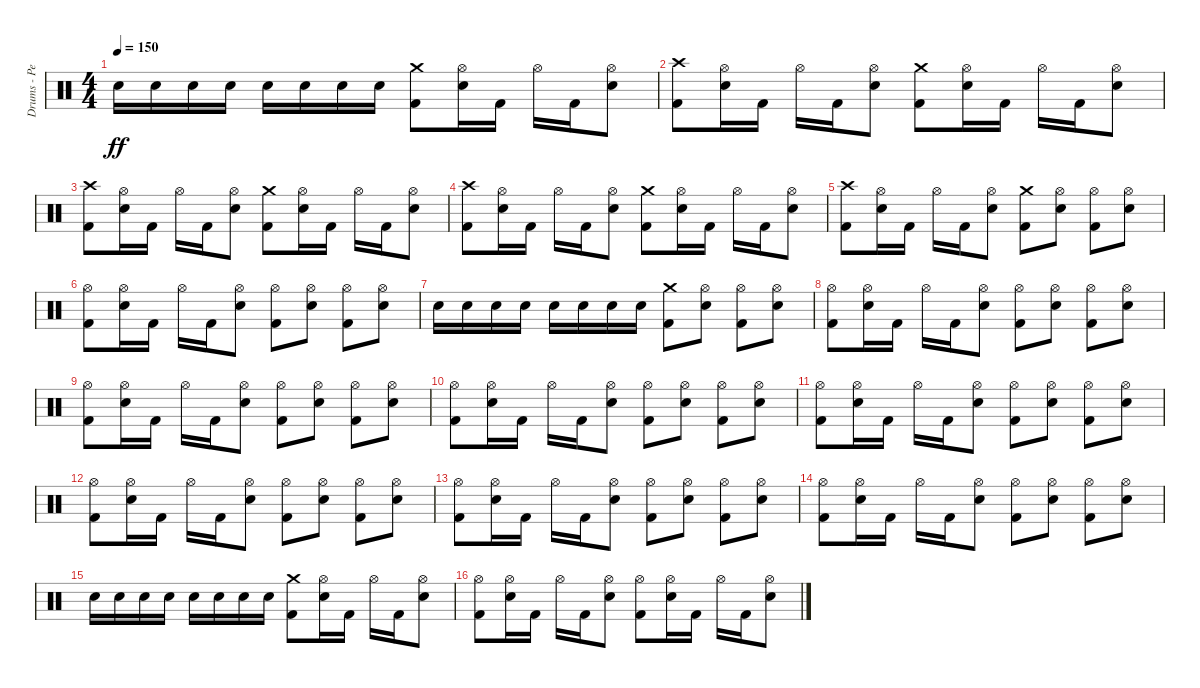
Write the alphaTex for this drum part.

\track ("Drums - Pete Finestone" "Drums - Pe") {instrument percussion}
\staff {score}
\articulation defaults
\ts (4 4)
\tempo 150
\clef neutral
\ks c "Electric Snare (hit)".16{dy ff} "Electric Snare (hit)".16 "Electric Snare (hit)".16 "Electric Snare (hit)".16 "Electric Snare (hit)".16 "Electric Snare (hit)".16 "Electric Snare (hit)".16 "Electric Snare (hit)".16
("Kick (hit) 2" "Crash medium (hit)").8 ("Electric Snare (hit)" "Hi-Hat (open)").16 "Kick (hit) 2".16 "Hi-Hat (open)".16 "Kick (hit) 2".16 ("Electric Snare (hit)" "Hi-Hat (open)").8 |
("Kick (hit) 2" "Crash high (hit)").8 ("Electric Snare (hit)" "Hi-Hat (open)").16 "Kick (hit) 2".16 "Hi-Hat (open)".16 "Kick (hit) 2".16 ("Electric Snare (hit)" "Hi-Hat (open)").8 ("Kick (hit) 2" "Crash medium (hit)").8 ("Electric Snare (hit)" "Hi-Hat (open)").16 "Kick (hit) 2".16 "Hi-Hat (open)".16 "Kick (hit) 2".16 ("Electric Snare (hit)" "Hi-Hat (open)").8 |
("Kick (hit) 2" "Crash high (hit)").8 ("Electric Snare (hit)" "Hi-Hat (open)").16 "Kick (hit) 2".16 "Hi-Hat (open)".16 "Kick (hit) 2".16 ("Electric Snare (hit)" "Hi-Hat (open)").8 ("Kick (hit) 2" "Crash medium (hit)").8 ("Electric Snare (hit)" "Hi-Hat (open)").16 "Kick (hit) 2".16 "Hi-Hat (open)".16 "Kick (hit) 2".16 ("Electric Snare (hit)" "Hi-Hat (open)").8 |
("Kick (hit) 2" "Crash high (hit)").8 ("Electric Snare (hit)" "Hi-Hat (open)").16 "Kick (hit) 2".16 "Hi-Hat (open)".16 "Kick (hit) 2".16 ("Electric Snare (hit)" "Hi-Hat (open)").8 ("Kick (hit) 2" "Crash medium (hit)").8 ("Electric Snare (hit)" "Hi-Hat (open)").16 "Kick (hit) 2".16 "Hi-Hat (open)".16 "Kick (hit) 2".16 ("Electric Snare (hit)" "Hi-Hat (open)").8 |
("Kick (hit) 2" "Crash high (hit)").8 ("Electric Snare (hit)" "Hi-Hat (open)").16 "Kick (hit) 2".16 "Hi-Hat (open)".16 "Kick (hit) 2".16 ("Electric Snare (hit)" "Hi-Hat (open)").8 ("Kick (hit) 2" "Crash medium (hit)").8 ("Electric Snare (hit)" "Hi-Hat (open)").8 ("Hi-Hat (open)" "Kick (hit) 2").8 ("Electric Snare (hit)" "Hi-Hat (open)").8 |
("Kick (hit) 2" "Hi-Hat (open)").8 ("Electric Snare (hit)" "Hi-Hat (open)").16 "Kick (hit) 2".16 "Hi-Hat (open)".16 "Kick (hit) 2".16 ("Electric Snare (hit)" "Hi-Hat (open)").8 ("Kick (hit) 2" "Hi-Hat (open)").8 ("Electric Snare (hit)" "Hi-Hat (open)").8 ("Kick (hit) 2" "Hi-Hat (open)").8 ("Electric Snare (hit)" "Hi-Hat (open)").8 |
"Electric Snare (hit)".16 "Electric Snare (hit)".16 "Electric Snare (hit)".16 "Electric Snare (hit)".16 "Electric Snare (hit)".16 "Electric Snare (hit)".16 "Electric Snare (hit)".16 "Electric Snare (hit)".16 ("Kick (hit) 2" "Crash medium (hit)").8 ("Electric Snare (hit)" "Hi-Hat (open)").8 ("Kick (hit) 2" "Hi-Hat (open)").8 ("Electric Snare (hit)" "Hi-Hat (open)").8 |
("Kick (hit) 2" "Hi-Hat (open)").8 ("Electric Snare (hit)" "Hi-Hat (open)").16 "Kick (hit) 2".16 "Hi-Hat (open)".16 "Kick (hit) 2".16 ("Electric Snare (hit)" "Hi-Hat (open)").8 ("Kick (hit) 2" "Hi-Hat (open)").8 ("Electric Snare (hit)" "Hi-Hat (open)").8 ("Kick (hit) 2" "Hi-Hat (open)").8 ("Electric Snare (hit)" "Hi-Hat (open)").8 |
("Kick (hit) 2" "Hi-Hat (open)").8 ("Electric Snare (hit)" "Hi-Hat (open)").16 "Kick (hit) 2".16 "Hi-Hat (open)".16 "Kick (hit) 2".16 ("Electric Snare (hit)" "Hi-Hat (open)").8 ("Kick (hit) 2" "Hi-Hat (open)").8 ("Electric Snare (hit)" "Hi-Hat (open)").8 ("Kick (hit) 2" "Hi-Hat (open)").8 ("Electric Snare (hit)" "Hi-Hat (open)").8 |
("Kick (hit) 2" "Hi-Hat (open)").8 ("Electric Snare (hit)" "Hi-Hat (open)").16 "Kick (hit) 2".16 "Hi-Hat (open)".16 "Kick (hit) 2".16 ("Electric Snare (hit)" "Hi-Hat (open)").8 ("Kick (hit) 2" "Hi-Hat (open)").8 ("Electric Snare (hit)" "Hi-Hat (open)").8 ("Hi-Hat (open)" "Kick (hit) 2").8 ("Electric Snare (hit)" "Hi-Hat (open)").8 |
("Kick (hit) 2" "Hi-Hat (open)").8 ("Electric Snare (hit)" "Hi-Hat (open)").16 "Kick (hit) 2".16 "Hi-Hat (open)".16 "Kick (hit) 2".16 ("Electric Snare (hit)" "Hi-Hat (open)").8 ("Hi-Hat (open)" "Kick (hit) 2").8 ("Hi-Hat (open)" "Electric Snare (hit)").8 ("Hi-Hat (open)" "Kick (hit) 2").8 ("Hi-Hat (open)" "Electric Snare (hit)").8 |
("Kick (hit) 2" "Hi-Hat (open)").8 ("Electric Snare (hit)" "Hi-Hat (open)").16 "Kick (hit) 2".16 "Hi-Hat (open)".16 "Kick (hit) 2".16 ("Electric Snare (hit)" "Hi-Hat (open)").8 ("Hi-Hat (open)" "Kick (hit) 2").8 ("Hi-Hat (open)" "Electric Snare (hit)").8 ("Hi-Hat (open)" "Kick (hit) 2").8 ("Hi-Hat (open)" "Electric Snare (hit)").8 |
("Kick (hit) 2" "Hi-Hat (open)").8 ("Electric Snare (hit)" "Hi-Hat (open)").16 "Kick (hit) 2".16 "Hi-Hat (open)".16 "Kick (hit) 2".16 ("Electric Snare (hit)" "Hi-Hat (open)").8 ("Hi-Hat (open)" "Kick (hit) 2").8 ("Hi-Hat (open)" "Electric Snare (hit)").8 ("Hi-Hat (open)" "Kick (hit) 2").8 ("Hi-Hat (open)" "Electric Snare (hit)").8 |
("Hi-Hat (open)" "Kick (hit) 2").8 ("Electric Snare (hit)" "Hi-Hat (open)").16 "Kick (hit) 2".16 "Hi-Hat (open)".16 "Kick (hit) 2".16 ("Electric Snare (hit)" "Hi-Hat (open)").8 ("Hi-Hat (open)" "Kick (hit) 2").8 ("Hi-Hat (open)" "Electric Snare (hit)").8 ("Hi-Hat (open)" "Kick (hit) 2").8 ("Hi-Hat (open)" "Electric Snare (hit)").8 |
"Electric Snare (hit)".16 "Electric Snare (hit)".16 "Electric Snare (hit)".16 "Electric Snare (hit)".16 "Electric Snare (hit)".16 "Electric Snare (hit)".16 "Electric Snare (hit)".16 "Electric Snare (hit)".16 ("Kick (hit) 2" "Crash medium (hit)").8 ("Electric Snare (hit)" "Hi-Hat (open)").16 "Kick (hit) 2".16 "Hi-Hat (open)".16 "Kick (hit) 2".16 ("Electric Snare (hit)" "Hi-Hat (open)").8 |
("Kick (hit) 2" "Hi-Hat (open)").8 ("Electric Snare (hit)" "Hi-Hat (open)").16 "Kick (hit) 2".16 "Hi-Hat (open)".16 "Kick (hit) 2".16 ("Electric Snare (hit)" "Hi-Hat (open)").8 ("Kick (hit) 2" "Hi-Hat (open)").8 ("Electric Snare (hit)" "Hi-Hat (open)").16 "Kick (hit) 2".16 "Hi-Hat (open)".16 "Kick (hit) 2".16 ("Electric Snare (hit)" "Hi-Hat (open)").8
